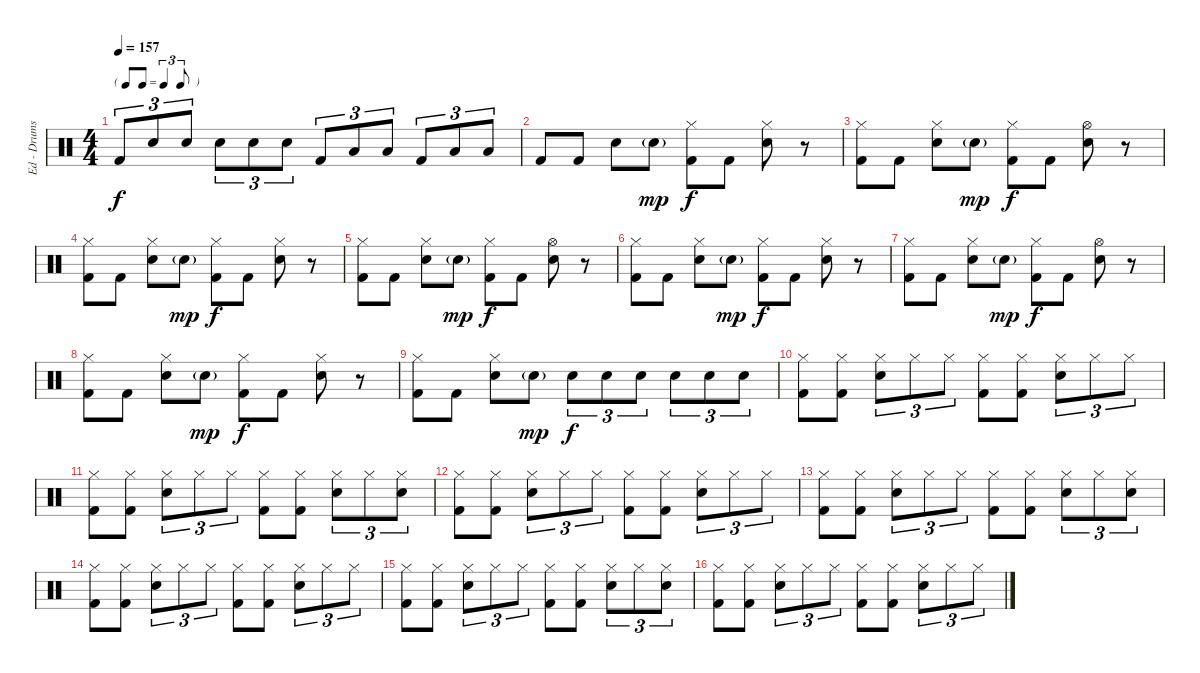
\track ("Ed - Drums" "Ed - Drums") {instrument percussion}
\staff {score}
\articulation defaults
\ts (4 4)
\tf triplet8th
\tempo 157
\clef neutral
\ks c "Kick (hit) 2".8{tu (3 2) dy f} "Electric Snare (hit)".8{tu (3 2)} "Electric Snare (hit)".8{tu (3 2)} "Electric Snare (hit)".8{tu (3 2)} "Electric Snare (hit)".8{tu (3 2)} "Electric Snare (hit)".8{tu (3 2)} "Kick (hit) 2".8{tu (3 2)} "Low Tom (hit)".8{tu (3 2)} "Low Tom (hit)".8{tu (3 2)} "Kick (hit) 2".8{tu (3 2)} "Low Floor Tom (hit)".8{tu (3 2)} "Low Floor Tom (hit)".8{tu (3 2)}
|
"Kick (hit) 2".8 "Kick (hit) 2".8 "Electric Snare (hit)".8 "Electric Snare (hit)"{g}.8{dy mp} ("Hi-Hat (closed)" "Kick (hit) 2").8{dy f} "Kick (hit) 2".8 ("Hi-Hat (closed)" "Electric Snare (hit)").8 r.8 |
("Hi-Hat (closed)" "Kick (hit) 2").8 "Kick (hit) 2".8 ("Hi-Hat (closed)" "Electric Snare (hit)").8 "Electric Snare (hit)"{g}.8{dy mp} ("Hi-Hat (closed)" "Kick (hit) 2").8{dy f} "Kick (hit) 2".8 ("Hi-Hat (open)" "Electric Snare (hit)").8 r.8 |
("Hi-Hat (closed)" "Kick (hit) 2").8 "Kick (hit) 2".8 ("Hi-Hat (closed)" "Electric Snare (hit)").8 "Electric Snare (hit)"{g}.8{dy mp} ("Hi-Hat (closed)" "Kick (hit) 2").8{dy f} "Kick (hit) 2".8 ("Hi-Hat (closed)" "Electric Snare (hit)").8 r.8 |
("Hi-Hat (closed)" "Kick (hit) 2").8 "Kick (hit) 2".8 ("Hi-Hat (closed)" "Electric Snare (hit)").8 "Electric Snare (hit)"{g}.8{dy mp} ("Hi-Hat (closed)" "Kick (hit) 2").8{dy f} "Kick (hit) 2".8 ("Hi-Hat (open)" "Electric Snare (hit)").8 r.8 |
("Hi-Hat (closed)" "Kick (hit) 2").8 "Kick (hit) 2".8 ("Hi-Hat (closed)" "Electric Snare (hit)").8 "Electric Snare (hit)"{g}.8{dy mp} ("Hi-Hat (closed)" "Kick (hit) 2").8{dy f} "Kick (hit) 2".8 ("Hi-Hat (closed)" "Electric Snare (hit)").8 r.8 |
("Hi-Hat (closed)" "Kick (hit) 2").8 "Kick (hit) 2".8 ("Hi-Hat (closed)" "Electric Snare (hit)").8 "Electric Snare (hit)"{g}.8{dy mp} ("Hi-Hat (closed)" "Kick (hit) 2").8{dy f} "Kick (hit) 2".8 ("Hi-Hat (open)" "Electric Snare (hit)").8 r.8 |
("Hi-Hat (closed)" "Kick (hit) 2").8 "Kick (hit) 2".8 ("Hi-Hat (closed)" "Electric Snare (hit)").8 "Electric Snare (hit)"{g}.8{dy mp} ("Hi-Hat (closed)" "Kick (hit) 2").8{dy f} "Kick (hit) 2".8 ("Hi-Hat (closed)" "Electric Snare (hit)").8 r.8 |
("Hi-Hat (closed)" "Kick (hit) 2").8 "Kick (hit) 2".8 ("Hi-Hat (closed)" "Electric Snare (hit)").8 "Electric Snare (hit)"{g}.8{dy mp} "Electric Snare (hit)".8{tu (3 2) dy f} "Electric Snare (hit)".8{tu (3 2)} "Electric Snare (hit)".8{tu (3 2)} "Electric Snare (hit)".8{tu (3 2)} "Electric Snare (hit)".8{tu (3 2)} "Electric Snare (hit)".8{tu (3 2)} |
("Hi-Hat (closed)" "Kick (hit) 2").8 ("Hi-Hat (closed)" "Kick (hit) 2").8 ("Hi-Hat (closed)" "Electric Snare (hit)").8{tu (3 2)} "Hi-Hat (closed)".8{tu (3 2)} "Hi-Hat (closed)".8{tu (3 2)} ("Hi-Hat (closed)" "Kick (hit) 2").8 ("Hi-Hat (closed)" "Kick (hit) 2").8 ("Hi-Hat (closed)" "Electric Snare (hit)").8{tu (3 2)} "Hi-Hat (closed)".8{tu (3 2)} "Hi-Hat (closed)".8{tu (3 2)} |
("Hi-Hat (closed)" "Kick (hit) 2").8 ("Hi-Hat (closed)" "Kick (hit) 2").8 ("Hi-Hat (closed)" "Electric Snare (hit)").8{tu (3 2)} "Hi-Hat (closed)".8{tu (3 2)} "Hi-Hat (closed)".8{tu (3 2)} ("Hi-Hat (closed)" "Kick (hit) 2").8 ("Hi-Hat (closed)" "Kick (hit) 2").8 ("Hi-Hat (closed)" "Electric Snare (hit)").8{tu (3 2)} "Hi-Hat (closed)".8{tu (3 2)} ("Hi-Hat (closed)" "Electric Snare (hit)").8{tu (3 2)} |
("Hi-Hat (closed)" "Kick (hit) 2").8 ("Hi-Hat (closed)" "Kick (hit) 2").8 ("Hi-Hat (closed)" "Electric Snare (hit)").8{tu (3 2)} "Hi-Hat (closed)".8{tu (3 2)} "Hi-Hat (closed)".8{tu (3 2)} ("Hi-Hat (closed)" "Kick (hit) 2").8 ("Hi-Hat (closed)" "Kick (hit) 2").8 ("Hi-Hat (closed)" "Electric Snare (hit)").8{tu (3 2)} "Hi-Hat (closed)".8{tu (3 2)} "Hi-Hat (closed)".8{tu (3 2)} |
("Hi-Hat (closed)" "Kick (hit) 2").8 ("Hi-Hat (closed)" "Kick (hit) 2").8 ("Hi-Hat (closed)" "Electric Snare (hit)").8{tu (3 2)} "Hi-Hat (closed)".8{tu (3 2)} "Hi-Hat (closed)".8{tu (3 2)} ("Hi-Hat (closed)" "Kick (hit) 2").8 ("Hi-Hat (closed)" "Kick (hit) 2").8 ("Hi-Hat (closed)" "Electric Snare (hit)").8{tu (3 2)} "Hi-Hat (closed)".8{tu (3 2)} ("Hi-Hat (closed)" "Electric Snare (hit)").8{tu (3 2)} |
("Hi-Hat (closed)" "Kick (hit) 2").8 ("Hi-Hat (closed)" "Kick (hit) 2").8 ("Hi-Hat (closed)" "Electric Snare (hit)").8{tu (3 2)} "Hi-Hat (closed)".8{tu (3 2)} "Hi-Hat (closed)".8{tu (3 2)} ("Hi-Hat (closed)" "Kick (hit) 2").8 ("Hi-Hat (closed)" "Kick (hit) 2").8 ("Hi-Hat (closed)" "Electric Snare (hit)").8{tu (3 2)} "Hi-Hat (closed)".8{tu (3 2)} "Hi-Hat (closed)".8{tu (3 2)} |
("Hi-Hat (closed)" "Kick (hit) 2").8 ("Hi-Hat (closed)" "Kick (hit) 2").8 ("Hi-Hat (closed)" "Electric Snare (hit)").8{tu (3 2)} "Hi-Hat (closed)".8{tu (3 2)} "Hi-Hat (closed)".8{tu (3 2)} ("Hi-Hat (closed)" "Kick (hit) 2").8 ("Hi-Hat (closed)" "Kick (hit) 2").8 ("Hi-Hat (closed)" "Electric Snare (hit)").8{tu (3 2)} "Hi-Hat (closed)".8{tu (3 2)} ("Hi-Hat (closed)" "Electric Snare (hit)").8{tu (3 2)} |
("Hi-Hat (closed)" "Kick (hit) 2").8 ("Hi-Hat (closed)" "Kick (hit) 2").8 ("Hi-Hat (closed)" "Electric Snare (hit)").8{tu (3 2)} "Hi-Hat (closed)".8{tu (3 2)} "Hi-Hat (closed)".8{tu (3 2)} ("Hi-Hat (closed)" "Kick (hit) 2").8 ("Hi-Hat (closed)" "Kick (hit) 2").8 ("Hi-Hat (closed)" "Electric Snare (hit)").8{tu (3 2)} "Hi-Hat (closed)".8{tu (3 2)} "Hi-Hat (closed)".8{tu (3 2)}
